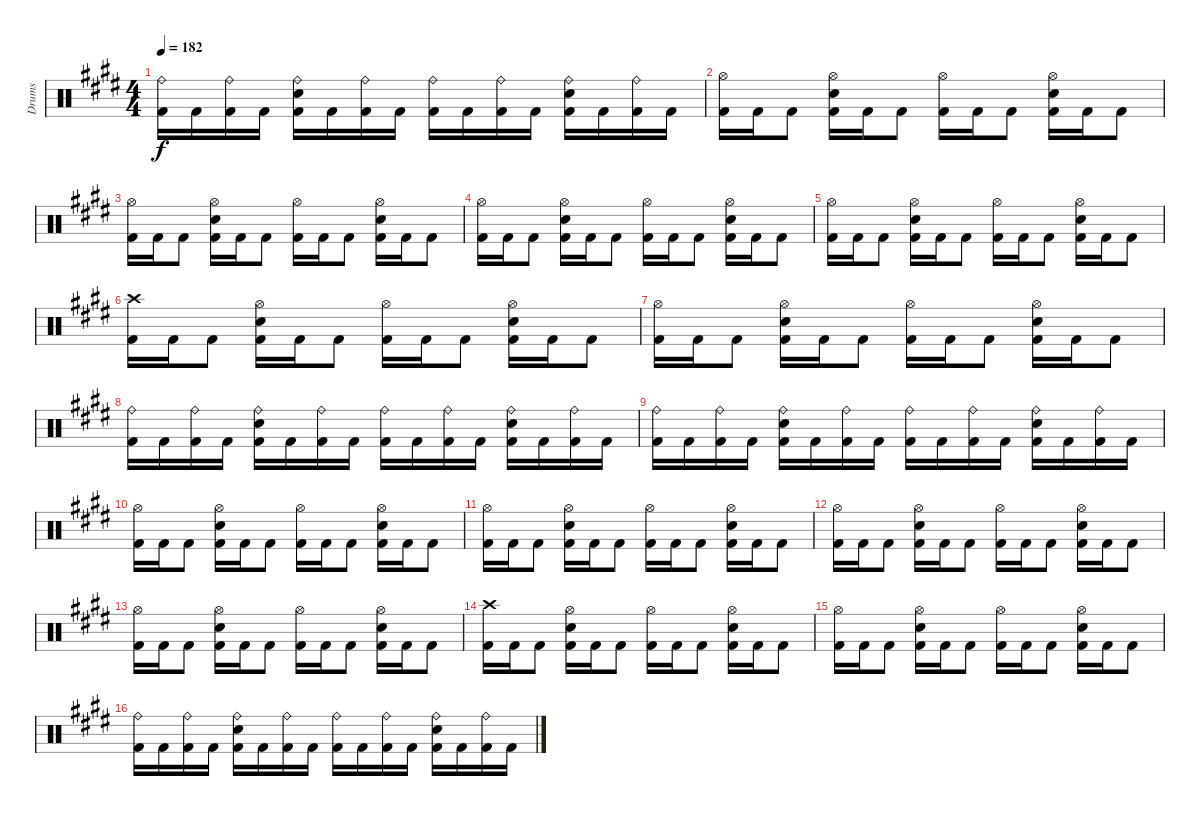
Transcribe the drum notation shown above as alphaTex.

\track ("Drums" "Drums") {instrument percussion}
\staff {score}
\articulation defaults
\ts (4 4)
\tempo 182
\clef neutral
\ks c#minor
("Ride (bell)" "Kick (hit) 2").16{dy f} "Kick (hit) 2".16 ("Ride (bell)" "Kick (hit) 2").16 "Kick (hit) 2".16 ("Ride (bell)" "Snare (hit) 2" "Kick (hit) 2").16 "Kick (hit) 2".16 ("Ride (bell)" "Kick (hit) 2").16 "Kick (hit) 2".16 ("Ride (bell)" "Kick (hit) 2").16 "Kick (hit) 2".16 ("Ride (bell)" "Kick (hit) 2").16 "Kick (hit) 2".16 ("Ride (bell)" "Snare (hit) 2" "Kick (hit) 2").16 "Kick (hit) 2".16 ("Ride (bell)" "Kick (hit) 2").16 "Kick (hit) 2".16 |
("Hi-Hat (open)" "Kick (hit) 2").16 "Kick (hit) 2".16 "Kick (hit) 2".8 ("Hi-Hat (open)" "Snare (hit) 2" "Kick (hit) 2").16 "Kick (hit) 2".16 "Kick (hit) 2".8 ("Hi-Hat (open)" "Kick (hit) 2").16 "Kick (hit) 2".16 "Kick (hit) 2".8 ("Hi-Hat (open)" "Snare (hit) 2" "Kick (hit) 2").16 "Kick (hit) 2".16 "Kick (hit) 2".8 |
("Hi-Hat (open)" "Kick (hit) 2").16 "Kick (hit) 2".16 "Kick (hit) 2".8 ("Hi-Hat (open)" "Snare (hit) 2" "Kick (hit) 2").16 "Kick (hit) 2".16 "Kick (hit) 2".8 ("Hi-Hat (open)" "Kick (hit) 2").16 "Kick (hit) 2".16 "Kick (hit) 2".8 ("Hi-Hat (open)" "Snare (hit) 2" "Kick (hit) 2").16 "Kick (hit) 2".16 "Kick (hit) 2".8 |
("Hi-Hat (open)" "Kick (hit) 2").16 "Kick (hit) 2".16 "Kick (hit) 2".8 ("Hi-Hat (open)" "Snare (hit) 2" "Kick (hit) 2").16 "Kick (hit) 2".16 "Kick (hit) 2".8 ("Hi-Hat (open)" "Kick (hit) 2").16 "Kick (hit) 2".16 "Kick (hit) 2".8 ("Hi-Hat (open)" "Snare (hit) 2" "Kick (hit) 2").16 "Kick (hit) 2".16 "Kick (hit) 2".8 |
("Hi-Hat (open)" "Kick (hit) 2").16 "Kick (hit) 2".16 "Kick (hit) 2".8 ("Hi-Hat (open)" "Snare (hit) 2" "Kick (hit) 2").16 "Kick (hit) 2".16 "Kick (hit) 2".8 ("Hi-Hat (open)" "Kick (hit) 2").16 "Kick (hit) 2".16 "Kick (hit) 2".8 ("Hi-Hat (open)" "Snare (hit) 2" "Kick (hit) 2").16 "Kick (hit) 2".16 "Kick (hit) 2".8 |
("Crash high (hit)" "Kick (hit) 2").16 "Kick (hit) 2".16 "Kick (hit) 2".8 ("Hi-Hat (open)" "Snare (hit) 2" "Kick (hit) 2").16 "Kick (hit) 2".16 "Kick (hit) 2".8 ("Hi-Hat (open)" "Kick (hit) 2").16 "Kick (hit) 2".16 "Kick (hit) 2".8 ("Hi-Hat (open)" "Snare (hit) 2" "Kick (hit) 2").16 "Kick (hit) 2".16 "Kick (hit) 2".8 |
("Hi-Hat (open)" "Kick (hit) 2").16 "Kick (hit) 2".16 "Kick (hit) 2".8 ("Hi-Hat (open)" "Snare (hit) 2" "Kick (hit) 2").16 "Kick (hit) 2".16 "Kick (hit) 2".8 ("Hi-Hat (open)" "Kick (hit) 2").16 "Kick (hit) 2".16 "Kick (hit) 2".8 ("Hi-Hat (open)" "Snare (hit) 2" "Kick (hit) 2").16 "Kick (hit) 2".16 "Kick (hit) 2".8 |
("Ride (bell)" "Kick (hit) 2").16 "Kick (hit) 2".16 ("Ride (bell)" "Kick (hit) 2").16 "Kick (hit) 2".16 ("Ride (bell)" "Snare (hit) 2" "Kick (hit) 2").16 "Kick (hit) 2".16 ("Ride (bell)" "Kick (hit) 2").16 "Kick (hit) 2".16 ("Ride (bell)" "Kick (hit) 2").16 "Kick (hit) 2".16 ("Ride (bell)" "Kick (hit) 2").16 "Kick (hit) 2".16 ("Ride (bell)" "Snare (hit) 2" "Kick (hit) 2").16 "Kick (hit) 2".16 ("Ride (bell)" "Kick (hit) 2").16 "Kick (hit) 2".16 |
("Ride (bell)" "Kick (hit) 2").16 "Kick (hit) 2".16 ("Ride (bell)" "Kick (hit) 2").16 "Kick (hit) 2".16 ("Ride (bell)" "Snare (hit) 2" "Kick (hit) 2").16 "Kick (hit) 2".16 ("Ride (bell)" "Kick (hit) 2").16 "Kick (hit) 2".16 ("Ride (bell)" "Kick (hit) 2").16 "Kick (hit) 2".16 ("Ride (bell)" "Kick (hit) 2").16 "Kick (hit) 2".16 ("Ride (bell)" "Snare (hit) 2" "Kick (hit) 2").16 "Kick (hit) 2".16 ("Ride (bell)" "Kick (hit) 2").16 "Kick (hit) 2".16 |
("Hi-Hat (open)" "Kick (hit) 2").16 "Kick (hit) 2".16 "Kick (hit) 2".8 ("Hi-Hat (open)" "Snare (hit) 2" "Kick (hit) 2").16 "Kick (hit) 2".16 "Kick (hit) 2".8 ("Hi-Hat (open)" "Kick (hit) 2").16 "Kick (hit) 2".16 "Kick (hit) 2".8 ("Hi-Hat (open)" "Snare (hit) 2" "Kick (hit) 2").16 "Kick (hit) 2".16 "Kick (hit) 2".8 |
("Hi-Hat (open)" "Kick (hit) 2").16 "Kick (hit) 2".16 "Kick (hit) 2".8 ("Hi-Hat (open)" "Snare (hit) 2" "Kick (hit) 2").16 "Kick (hit) 2".16 "Kick (hit) 2".8 ("Hi-Hat (open)" "Kick (hit) 2").16 "Kick (hit) 2".16 "Kick (hit) 2".8 ("Hi-Hat (open)" "Snare (hit) 2" "Kick (hit) 2").16 "Kick (hit) 2".16 "Kick (hit) 2".8 |
("Hi-Hat (open)" "Kick (hit) 2").16 "Kick (hit) 2".16 "Kick (hit) 2".8 ("Hi-Hat (open)" "Snare (hit) 2" "Kick (hit) 2").16 "Kick (hit) 2".16 "Kick (hit) 2".8 ("Hi-Hat (open)" "Kick (hit) 2").16 "Kick (hit) 2".16 "Kick (hit) 2".8 ("Hi-Hat (open)" "Snare (hit) 2" "Kick (hit) 2").16 "Kick (hit) 2".16 "Kick (hit) 2".8 |
("Hi-Hat (open)" "Kick (hit) 2").16 "Kick (hit) 2".16 "Kick (hit) 2".8 ("Hi-Hat (open)" "Snare (hit) 2" "Kick (hit) 2").16 "Kick (hit) 2".16 "Kick (hit) 2".8 ("Hi-Hat (open)" "Kick (hit) 2").16 "Kick (hit) 2".16 "Kick (hit) 2".8 ("Hi-Hat (open)" "Snare (hit) 2" "Kick (hit) 2").16 "Kick (hit) 2".16 "Kick (hit) 2".8 |
("Crash high (hit)" "Kick (hit) 2").16 "Kick (hit) 2".16 "Kick (hit) 2".8 ("Hi-Hat (open)" "Snare (hit) 2" "Kick (hit) 2").16 "Kick (hit) 2".16 "Kick (hit) 2".8 ("Hi-Hat (open)" "Kick (hit) 2").16 "Kick (hit) 2".16 "Kick (hit) 2".8 ("Hi-Hat (open)" "Snare (hit) 2" "Kick (hit) 2").16 "Kick (hit) 2".16 "Kick (hit) 2".8 |
("Hi-Hat (open)" "Kick (hit) 2").16 "Kick (hit) 2".16 "Kick (hit) 2".8 ("Hi-Hat (open)" "Snare (hit) 2" "Kick (hit) 2").16 "Kick (hit) 2".16 "Kick (hit) 2".8 ("Hi-Hat (open)" "Kick (hit) 2").16 "Kick (hit) 2".16 "Kick (hit) 2".8 ("Hi-Hat (open)" "Snare (hit) 2" "Kick (hit) 2").16 "Kick (hit) 2".16 "Kick (hit) 2".8 |
("Ride (bell)" "Kick (hit) 2").16 "Kick (hit) 2".16 ("Ride (bell)" "Kick (hit) 2").16 "Kick (hit) 2".16 ("Ride (bell)" "Snare (hit) 2" "Kick (hit) 2").16 "Kick (hit) 2".16 ("Ride (bell)" "Kick (hit) 2").16 "Kick (hit) 2".16 ("Ride (bell)" "Kick (hit) 2").16 "Kick (hit) 2".16 ("Ride (bell)" "Kick (hit) 2").16 "Kick (hit) 2".16 ("Ride (bell)" "Snare (hit) 2" "Kick (hit) 2").16 "Kick (hit) 2".16 ("Ride (bell)" "Kick (hit) 2").16 "Kick (hit) 2".16
